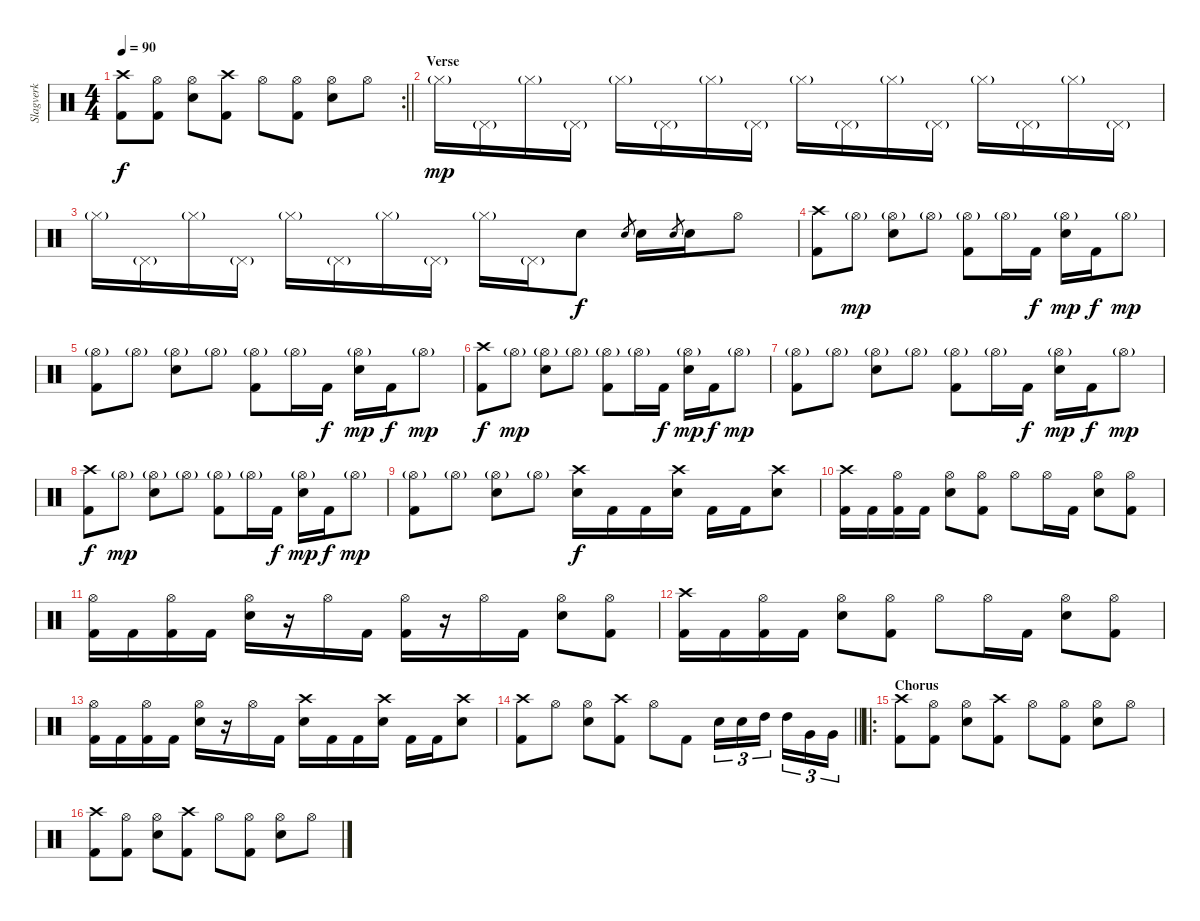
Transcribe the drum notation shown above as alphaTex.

\track ("Slagverk" "Slagverk") {instrument percussion}
\staff {score}
\articulation defaults
\rc 2
\ts (4 4)
\tempo 90
\clef neutral
\barLineRight lightlight
\ks c
("Kick (hit) 2" "Crash high (hit)").8{dy f} ("Kick (hit) 2" "Hi-Hat (open)").8 ("Hi-Hat (open)" "Snare (hit) 2").8 ("Kick (hit) 2" "Crash high (hit)").8 "Hi-Hat (open)".8 ("Kick (hit) 2" "Hi-Hat (open)").8 ("Hi-Hat (open)" "Snare (hit) 2").8 "Hi-Hat (open)".8 |
\section ("" "Verse")
"Hi-Hat (closed)"{g}.16{dy mp} "Pedal Hi-Hat (hit)"{g}.16 "Hi-Hat (closed)"{g}.16 "Pedal Hi-Hat (hit)"{g}.16 "Hi-Hat (closed)"{g}.16 "Pedal Hi-Hat (hit)"{g}.16 "Hi-Hat (closed)"{g}.16 "Pedal Hi-Hat (hit)"{g}.16 "Hi-Hat (closed)"{g}.16 "Pedal Hi-Hat (hit)"{g}.16 "Hi-Hat (closed)"{g}.16 "Pedal Hi-Hat (hit)"{g}.16 "Hi-Hat (closed)"{g}.16 "Pedal Hi-Hat (hit)"{g}.16 "Hi-Hat (closed)"{g}.16 "Pedal Hi-Hat (hit)"{g}.16 |
"Hi-Hat (closed)"{g}.16 "Pedal Hi-Hat (hit)"{g}.16 "Hi-Hat (closed)"{g}.16 "Pedal Hi-Hat (hit)"{g}.16 "Hi-Hat (closed)"{g}.16 "Pedal Hi-Hat (hit)"{g}.16 "Hi-Hat (closed)"{g}.16 "Pedal Hi-Hat (hit)"{g}.16 "Hi-Hat (closed)"{g}.16 "Pedal Hi-Hat (hit)"{g}.16 "Electric Snare (hit)".8{dy f} "Electric Snare (hit)".8{gr} "Electric Snare (hit)".16 "Electric Snare (hit)".8{gr} "Electric Snare (hit)".16 "Hi-Hat (open)".8 |
("Kick (hit) 2" "Crash high (hit)").8 "Hi-Hat (open)"{g}.8{dy mp} ("Hi-Hat (open)"{g} "Snare (hit) 2").8 "Hi-Hat (open)"{g}.8 ("Kick (hit) 2" "Hi-Hat (open)"{g}).8 "Hi-Hat (open)"{g}.16 "Kick (hit) 2".16{dy f} ("Hi-Hat (open)"{g} "Snare (hit) 2").16{dy mp} "Kick (hit) 2".16{dy f} "Hi-Hat (open)"{g}.8{dy mp} |
("Kick (hit) 2" "Hi-Hat (open)"{g}).8 "Hi-Hat (open)"{g}.8 ("Hi-Hat (open)"{g} "Snare (hit) 2").8 "Hi-Hat (open)"{g}.8 ("Kick (hit) 2" "Hi-Hat (open)"{g}).8 "Hi-Hat (open)"{g}.16 "Kick (hit) 2".16{dy f} ("Hi-Hat (open)"{g} "Snare (hit) 2").16{dy mp} "Kick (hit) 2".16{dy f} "Hi-Hat (open)"{g}.8{dy mp} |
("Kick (hit) 2" "Crash high (hit)").8{dy f} "Hi-Hat (open)"{g}.8{dy mp} ("Hi-Hat (open)"{g} "Snare (hit) 2").8 "Hi-Hat (open)"{g}.8 ("Kick (hit) 2" "Hi-Hat (open)"{g}).8 "Hi-Hat (open)"{g}.16 "Kick (hit) 2".16{dy f} ("Hi-Hat (open)"{g} "Snare (hit) 2").16{dy mp} "Kick (hit) 2".16{dy f} "Hi-Hat (open)"{g}.8{dy mp} |
("Kick (hit) 2" "Hi-Hat (open)"{g}).8 "Hi-Hat (open)"{g}.8 ("Hi-Hat (open)"{g} "Snare (hit) 2").8 "Hi-Hat (open)"{g}.8 ("Kick (hit) 2" "Hi-Hat (open)"{g}).8 "Hi-Hat (open)"{g}.16 "Kick (hit) 2".16{dy f} ("Hi-Hat (open)"{g} "Snare (hit) 2").16{dy mp} "Kick (hit) 2".16{dy f} "Hi-Hat (open)"{g}.8{dy mp} |
("Kick (hit) 2" "Crash high (hit)").8{dy f} "Hi-Hat (open)"{g}.8{dy mp} ("Hi-Hat (open)"{g} "Snare (hit) 2").8 "Hi-Hat (open)"{g}.8 ("Kick (hit) 2" "Hi-Hat (open)"{g}).8 "Hi-Hat (open)"{g}.16 "Kick (hit) 2".16{dy f} ("Hi-Hat (open)"{g} "Snare (hit) 2").16{dy mp} "Kick (hit) 2".16{dy f} "Hi-Hat (open)"{g}.8{dy mp} |
("Kick (hit) 2" "Hi-Hat (open)"{g}).8 "Hi-Hat (open)"{g}.8 ("Hi-Hat (open)"{g} "Snare (hit) 2").8 "Hi-Hat (open)"{g}.8 ("Crash high (hit)" "Snare (hit) 2").16{dy f} "Kick (hit) 2".16 "Kick (hit) 2".16 ("Crash high (hit)" "Snare (hit) 2").16 "Kick (hit) 2".16 "Kick (hit) 2".16 ("Crash high (hit)" "Snare (hit) 2").8 |
("Kick (hit) 2" "Crash high (hit)").16 "Kick (hit) 2".16 ("Kick (hit) 2" "Hi-Hat (open)").16 "Kick (hit) 2".16 ("Hi-Hat (open)" "Snare (hit) 2").8 ("Kick (hit) 2" "Hi-Hat (open)").8 "Hi-Hat (open)".8 "Hi-Hat (open)".16 "Kick (hit) 2".16 ("Hi-Hat (open)" "Snare (hit) 2").8 ("Kick (hit) 2" "Hi-Hat (open)").8 |
("Kick (hit) 2" "Hi-Hat (open)").16 "Kick (hit) 2".16 ("Kick (hit) 2" "Hi-Hat (open)").16 "Kick (hit) 2".16 ("Hi-Hat (open)" "Snare (hit) 2").16 r.16 "Hi-Hat (open)".16 "Kick (hit) 2".16 ("Kick (hit) 2" "Hi-Hat (open)").16 r.16 "Hi-Hat (open)".16 "Kick (hit) 2".16 ("Hi-Hat (open)" "Snare (hit) 2").8 ("Kick (hit) 2" "Hi-Hat (open)").8 |
("Kick (hit) 2" "Crash high (hit)").16 "Kick (hit) 2".16 ("Kick (hit) 2" "Hi-Hat (open)").16 "Kick (hit) 2".16 ("Hi-Hat (open)" "Snare (hit) 2").8 ("Kick (hit) 2" "Hi-Hat (open)").8 "Hi-Hat (open)".8 "Hi-Hat (open)".16 "Kick (hit) 2".16 ("Hi-Hat (open)" "Snare (hit) 2").8 ("Kick (hit) 2" "Hi-Hat (open)").8 |
("Kick (hit) 2" "Hi-Hat (open)").16 "Kick (hit) 2".16 ("Kick (hit) 2" "Hi-Hat (open)").16 "Kick (hit) 2".16 ("Hi-Hat (open)" "Snare (hit) 2").16 r.16 "Hi-Hat (open)".16 "Kick (hit) 2".16 ("Crash high (hit)" "Snare (hit) 2").16 "Kick (hit) 2".16 "Kick (hit) 2".16 ("Crash high (hit)" "Snare (hit) 2").16 "Kick (hit) 2".16 "Kick (hit) 2".16 ("Crash high (hit)" "Snare (hit) 2").8 |
\barLineRight lightlight
("Kick (hit) 2" "Crash high (hit)").8 "Hi-Hat (open)".8 ("Hi-Hat (open)" "Snare (hit) 2").8 ("Kick (hit) 2" "Crash high (hit)").8 "Hi-Hat (open)".8 "Kick (hit) 2".8 "Snare (hit) 2".16{tu (3 2)} "Snare (hit) 2".16{tu (3 2)} "High Tom (hit)".16{tu (3 2) beam splitsecondary} "High Tom (hit)".16{tu (3 2)} "Very Low Tom (hit)".16{tu (3 2)} "Very Low Tom (hit)".16{tu (3 2)} |
\ro
\section ("" "Chorus")
("Kick (hit) 2" "Crash high (hit)").8 ("Kick (hit) 2" "Hi-Hat (open)").8 ("Hi-Hat (open)" "Snare (hit) 2").8 ("Kick (hit) 2" "Crash high (hit)").8 "Hi-Hat (open)".8 ("Kick (hit) 2" "Hi-Hat (open)").8 ("Hi-Hat (open)" "Snare (hit) 2").8 "Hi-Hat (open)".8 |
("Kick (hit) 2" "Crash high (hit)").8 ("Kick (hit) 2" "Hi-Hat (open)").8 ("Hi-Hat (open)" "Snare (hit) 2").8 ("Kick (hit) 2" "Crash high (hit)").8 "Hi-Hat (open)".8 ("Kick (hit) 2" "Hi-Hat (open)").8 ("Hi-Hat (open)" "Snare (hit) 2").8 "Hi-Hat (open)".8
